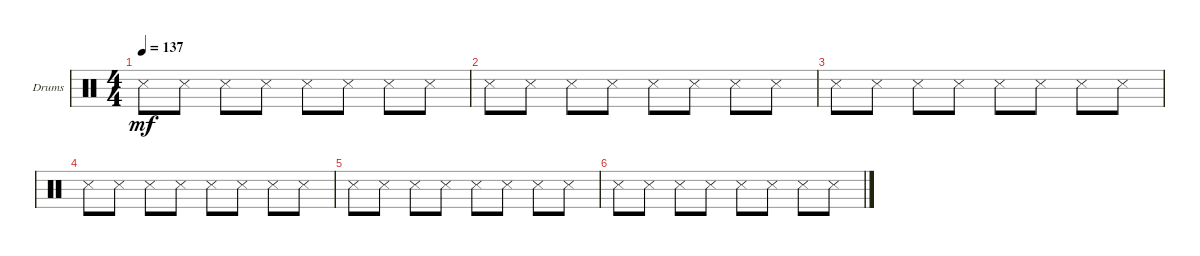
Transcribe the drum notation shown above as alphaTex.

\defaultSystemsLayout 4
\bracketExtendMode groupsimilarinstruments
\firstSystemTrackNameOrientation horizontal
\otherSystemsTrackNameOrientation horizontal
\track ("Drumkit" "Drums") {instrument percussion}
\staff {score}
\articulation defaults
\ts (4 4)
\tempo 137
\clef neutral
\ks c "Snare (side stick) 3".8{dy mf} "Snare (side stick) 3".8 "Snare (side stick) 3".8 "Snare (side stick) 3".8 "Snare (side stick) 3".8 "Snare (side stick) 3".8 "Snare (side stick) 3".8 "Snare (side stick) 3".8
|
"Snare (side stick) 3".8 "Snare (side stick) 3".8 "Snare (side stick) 3".8 "Snare (side stick) 3".8 "Snare (side stick) 3".8 "Snare (side stick) 3".8 "Snare (side stick) 3".8 "Snare (side stick) 3".8 |
"Snare (side stick) 3".8 "Snare (side stick) 3".8 "Snare (side stick) 3".8 "Snare (side stick) 3".8 "Snare (side stick) 3".8 "Snare (side stick) 3".8 "Snare (side stick) 3".8 "Snare (side stick) 3".8 |
"Snare (side stick) 3".8 "Snare (side stick) 3".8 "Snare (side stick) 3".8 "Snare (side stick) 3".8 "Snare (side stick) 3".8 "Snare (side stick) 3".8 "Snare (side stick) 3".8 "Snare (side stick) 3".8 |
"Snare (side stick) 3".8 "Snare (side stick) 3".8 "Snare (side stick) 3".8 "Snare (side stick) 3".8 "Snare (side stick) 3".8 "Snare (side stick) 3".8 "Snare (side stick) 3".8 "Snare (side stick) 3".8 |
"Snare (side stick) 3".8 "Snare (side stick) 3".8 "Snare (side stick) 3".8 "Snare (side stick) 3".8 "Snare (side stick) 3".8 "Snare (side stick) 3".8 "Snare (side stick) 3".8 "Snare (side stick) 3".8
